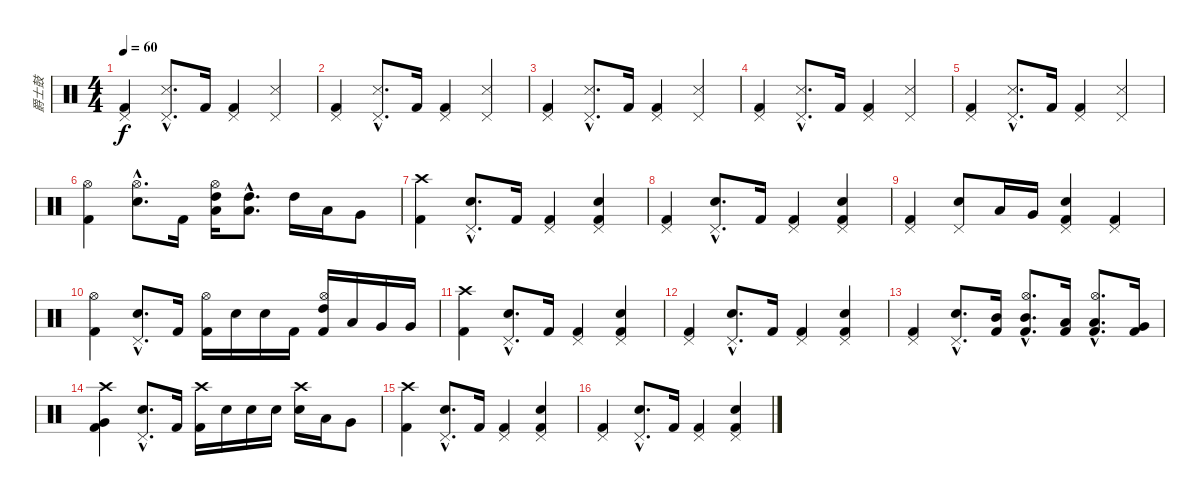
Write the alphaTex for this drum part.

\track ("爵士鼓" "爵士鼓") {instrument percussion}
\staff {score}
\articulation defaults
\ts (4 4)
\tempo 60
\clef neutral
\ks c
("Pedal Hi-Hat (hit)" "Kick (hit) 2").4{dy f} ("Pedal Hi-Hat (hit)"{hac} "Snare (side stick) 3"{hac}).8{d} "Kick (hit) 2".16 ("Pedal Hi-Hat (hit)" "Kick (hit) 2").4 ("Pedal Hi-Hat (hit)" "Snare (side stick) 3").4 |
("Pedal Hi-Hat (hit)" "Kick (hit) 2").4 ("Pedal Hi-Hat (hit)"{hac} "Snare (side stick) 3"{hac}).8{d} "Kick (hit) 2".16 ("Pedal Hi-Hat (hit)" "Kick (hit) 2").4 ("Pedal Hi-Hat (hit)" "Snare (side stick) 3").4 |
("Pedal Hi-Hat (hit)" "Kick (hit) 2").4 ("Pedal Hi-Hat (hit)"{hac} "Snare (side stick) 3"{hac}).8{d} "Kick (hit) 2".16 ("Pedal Hi-Hat (hit)" "Kick (hit) 2").4 ("Pedal Hi-Hat (hit)" "Snare (side stick) 3").4 |
("Pedal Hi-Hat (hit)" "Kick (hit) 2").4 ("Pedal Hi-Hat (hit)"{hac} "Snare (side stick) 3"{hac}).8{d} "Kick (hit) 2".16 ("Pedal Hi-Hat (hit)" "Kick (hit) 2").4 ("Pedal Hi-Hat (hit)" "Snare (side stick) 3").4 |
("Pedal Hi-Hat (hit)" "Kick (hit) 2").4 ("Pedal Hi-Hat (hit)"{hac} "Snare (side stick) 3"{hac}).8{d} "Kick (hit) 2".16 ("Pedal Hi-Hat (hit)" "Kick (hit) 2").4 ("Pedal Hi-Hat (hit)" "Snare (side stick) 3").4 |
("Hi-Hat (open)" "Kick (hit) 2").4 ("Hi-Hat (open)"{hac} "Snare (hit) 2"{hac}).8{d} "Kick (hit) 2".16 ("Hi-Hat (open)" "Low Tom (hit)" "High Tom (hit)").16 ("Low Tom (hit)"{hac} "High Tom (hit)"{hac}).8{d} "High Tom (hit)".16 "Low Tom (hit)".16 "Very Low Tom (hit)".8 |
("Crash high (hit)" "Kick (hit) 2").4 ("Pedal Hi-Hat (hit)"{hac} "Snare (hit) 2"{hac}).8{d} "Kick (hit) 2".16 ("Pedal Hi-Hat (hit)" "Kick (hit) 2").4 ("Pedal Hi-Hat (hit)" "Snare (hit) 2" "Kick (hit) 2").4 |
("Pedal Hi-Hat (hit)" "Kick (hit) 2").4 ("Pedal Hi-Hat (hit)"{hac} "Snare (hit) 2"{hac}).8{d} "Kick (hit) 2".16 ("Pedal Hi-Hat (hit)" "Kick (hit) 2").4 ("Pedal Hi-Hat (hit)" "Snare (hit) 2" "Kick (hit) 2").4 |
("Pedal Hi-Hat (hit)" "Kick (hit) 2").4 ("Pedal Hi-Hat (hit)" "Snare (hit) 2").8 "Low Tom (hit)".16 "Very Low Tom (hit)".16 ("Pedal Hi-Hat (hit)" "Snare (hit) 2" "Kick (hit) 2").4 ("Pedal Hi-Hat (hit)" "Kick (hit) 2").4 |
("Hi-Hat (open)" "Kick (hit) 2").4 ("Pedal Hi-Hat (hit)"{hac} "Snare (hit) 2"{hac}).8{d} "Kick (hit) 2".16 ("Hi-Hat (open)" "Kick (hit) 2").16 "Snare (hit) 2".16 "Snare (hit) 2".16 "Kick (hit) 2".16 ("Hi-Hat (open)" "High Tom (hit)" "Kick (hit) 2").16 "Low Tom (hit)".16 "Very Low Tom (hit)".16 "Very Low Tom (hit)".16 |
("Crash high (hit)" "Kick (hit) 2").4 ("Pedal Hi-Hat (hit)"{hac} "Snare (hit) 2"{hac}).8{d} "Kick (hit) 2".16 ("Pedal Hi-Hat (hit)" "Kick (hit) 2").4 ("Pedal Hi-Hat (hit)" "Snare (hit) 2" "Kick (hit) 2").4 |
("Pedal Hi-Hat (hit)" "Kick (hit) 2").4 ("Pedal Hi-Hat (hit)"{hac} "Snare (hit) 2"{hac}).8{d} "Kick (hit) 2".16 ("Pedal Hi-Hat (hit)" "Kick (hit) 2").4 ("Pedal Hi-Hat (hit)" "Snare (hit) 2" "Kick (hit) 2").4 |
("Pedal Hi-Hat (hit)" "Kick (hit) 2").4 ("Pedal Hi-Hat (hit)"{hac} "Snare (hit) 2"{hac}).8{d} ("Mid Tom (hit)" "Kick (hit) 2").16 ("Hi-Hat (open)"{hac} "Mid Tom (hit)"{hac} "Kick (hit) 2"{hac}).8{d} ("Low Tom (hit)" "Kick (hit) 2").16 ("Hi-Hat (open)"{hac} "Low Tom (hit)"{hac} "Kick (hit) 2"{hac}).8{d} ("Very Low Tom (hit)" "Kick (hit) 2").16 |
("Crash high (hit)" "Very Low Tom (hit)" "Kick (hit) 2").4 ("Pedal Hi-Hat (hit)"{hac} "Snare (hit) 2"{hac}).8{d} "Kick (hit) 2".16 ("Crash high (hit)" "Kick (hit) 2").16 "Snare (hit) 2".16 "Snare (hit) 2".16 "Snare (hit) 2".16 ("Crash high (hit)" "Snare (hit) 2").16 "Low Tom (hit)".16 "Very Low Tom (hit)".8 |
("Crash high (hit)" "Kick (hit) 2").4 ("Pedal Hi-Hat (hit)"{hac} "Snare (hit) 2"{hac}).8{d} "Kick (hit) 2".16 ("Pedal Hi-Hat (hit)" "Kick (hit) 2").4 ("Pedal Hi-Hat (hit)" "Snare (hit) 2" "Kick (hit) 2").4 |
("Pedal Hi-Hat (hit)" "Kick (hit) 2").4 ("Pedal Hi-Hat (hit)"{hac} "Snare (hit) 2"{hac}).8{d} "Kick (hit) 2".16 ("Pedal Hi-Hat (hit)" "Kick (hit) 2").4 ("Pedal Hi-Hat (hit)" "Snare (hit) 2" "Kick (hit) 2").4
